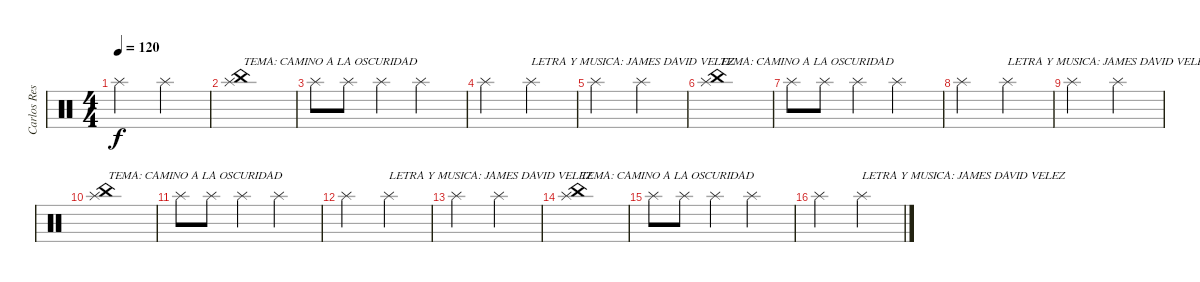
\track ("Carlos Restrepo" "Carlos Res") {instrument percussion}
\staff {score}
\articulation defaults
\ts (4 4)
\tempo 120
\clef neutral
\ks c "Splash (hit)".2{dy f} "Splash (hit)".2
|
("Splash (hit)" "China (hit)").1{txt "TEMA: CAMINO A LA OSCURIDAD"} |
"Splash (hit)".8 "Splash (hit)".8 "Splash (hit)".4 "Splash (hit)".2 |
"Splash (hit)".2 "Splash (hit)".2{txt "LETRA Y MUSICA: JAMES DAVID VELEZ "} |
"Splash (hit)".2 "Splash (hit)".2 |
("Splash (hit)" "China (hit)").1{txt "TEMA: CAMINO A LA OSCURIDAD"} |
"Splash (hit)".8 "Splash (hit)".8 "Splash (hit)".4 "Splash (hit)".2 |
"Splash (hit)".2 "Splash (hit)".2{txt "LETRA Y MUSICA: JAMES DAVID VELEZ "} |
"Splash (hit)".2 "Splash (hit)".2 |
("Splash (hit)" "China (hit)").1{txt "TEMA: CAMINO A LA OSCURIDAD"} |
"Splash (hit)".8 "Splash (hit)".8 "Splash (hit)".4 "Splash (hit)".2 |
"Splash (hit)".2 "Splash (hit)".2{txt "LETRA Y MUSICA: JAMES DAVID VELEZ "} |
"Splash (hit)".2 "Splash (hit)".2 |
("Splash (hit)" "China (hit)").1{txt "TEMA: CAMINO A LA OSCURIDAD"} |
"Splash (hit)".8 "Splash (hit)".8 "Splash (hit)".4 "Splash (hit)".2 |
"Splash (hit)".2 "Splash (hit)".2{txt "LETRA Y MUSICA: JAMES DAVID VELEZ "}
